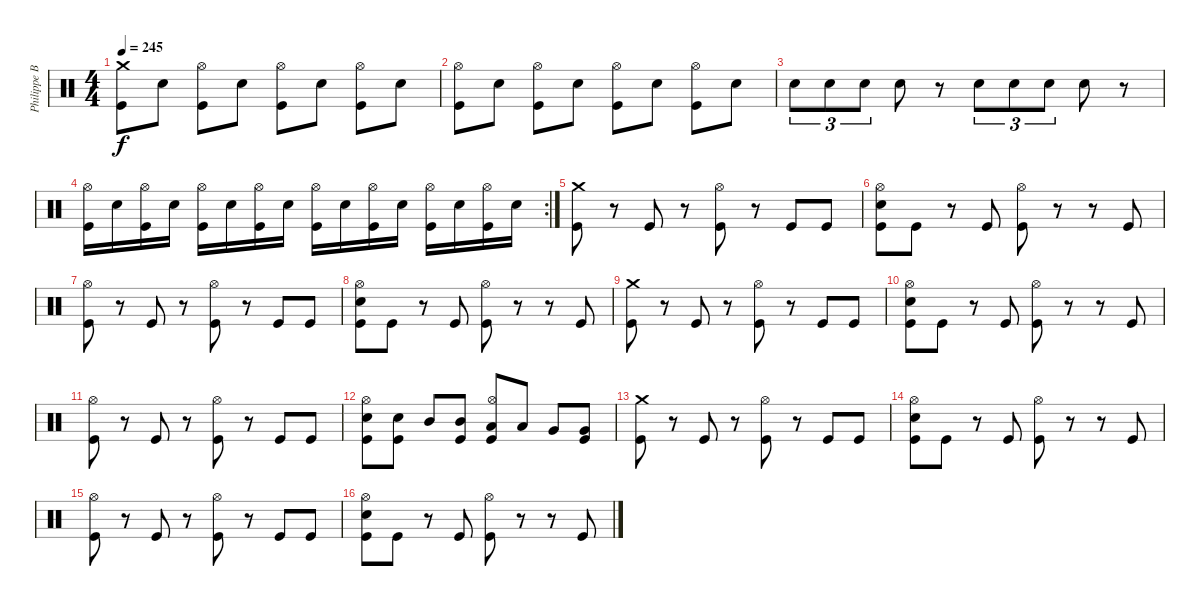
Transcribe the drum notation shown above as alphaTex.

\track ("Philippe Boucher" "Philippe B") {instrument percussion}
\staff {score}
\articulation defaults
\ts (4 4)
\tempo 245
\clef neutral
\ks c
("Crash medium (hit)" "Kick (hit)").8{dy f} "Electric Snare (hit)".8 ("Hi-Hat (open)" "Kick (hit)").8 "Electric Snare (hit)".8 ("Hi-Hat (open)" "Kick (hit)").8 "Electric Snare (hit)".8 ("Hi-Hat (open)" "Kick (hit)").8 "Electric Snare (hit)".8 |
("Hi-Hat (open)" "Kick (hit)").8 "Electric Snare (hit)".8 ("Hi-Hat (open)" "Kick (hit)").8 "Electric Snare (hit)".8 ("Hi-Hat (open)" "Kick (hit)").8 "Electric Snare (hit)".8 ("Hi-Hat (open)" "Kick (hit)").8 "Electric Snare (hit)".8 |
"Electric Snare (hit)".8{tu (3 2)} "Electric Snare (hit)".8{tu (3 2)} "Electric Snare (hit)".8{tu (3 2)} "Electric Snare (hit)".8 r.8 "Electric Snare (hit)".8{tu (3 2)} "Electric Snare (hit)".8{tu (3 2)} "Electric Snare (hit)".8{tu (3 2)} "Electric Snare (hit)".8 r.8 |
\rc 2
("Hi-Hat (open)" "Kick (hit)").16 "Electric Snare (hit)".16 ("Hi-Hat (open)" "Kick (hit)").16 "Electric Snare (hit)".16 ("Hi-Hat (open)" "Kick (hit)").16 "Electric Snare (hit)".16 ("Hi-Hat (open)" "Kick (hit)").16 "Electric Snare (hit)".16 ("Hi-Hat (open)" "Kick (hit)").16 "Electric Snare (hit)".16 ("Hi-Hat (open)" "Kick (hit)").16 "Electric Snare (hit)".16 ("Hi-Hat (open)" "Kick (hit)").16 "Electric Snare (hit)".16 ("Hi-Hat (open)" "Kick (hit)").16 "Electric Snare (hit)".16 |
("Crash medium (hit)" "Kick (hit)").8 r.8 "Kick (hit)".8 r.8 ("Hi-Hat (open)" "Kick (hit)").8 r.8 "Kick (hit)".8 "Kick (hit)".8 |
("Hi-Hat (open)" "Electric Snare (hit)" "Kick (hit)").8 "Kick (hit)".8 r.8 "Kick (hit)".8 ("Hi-Hat (open)" "Kick (hit)").8 r.8 r.8 "Kick (hit)".8 |
("Hi-Hat (open)" "Kick (hit)").8 r.8 "Kick (hit)".8 r.8 ("Hi-Hat (open)" "Kick (hit)").8 r.8 "Kick (hit)".8 "Kick (hit)".8 |
("Hi-Hat (open)" "Electric Snare (hit)" "Kick (hit)").8 "Kick (hit)".8 r.8 "Kick (hit)".8 ("Hi-Hat (open)" "Kick (hit)").8 r.8 r.8 "Kick (hit)".8 |
("Crash medium (hit)" "Kick (hit)").8 r.8 "Kick (hit)".8 r.8 ("Hi-Hat (open)" "Kick (hit)").8 r.8 "Kick (hit)".8 "Kick (hit)".8 |
("Hi-Hat (open)" "Electric Snare (hit)" "Kick (hit)").8 "Kick (hit)".8 r.8 "Kick (hit)".8 ("Hi-Hat (open)" "Kick (hit)").8 r.8 r.8 "Kick (hit)".8 |
("Hi-Hat (open)" "Kick (hit)").8 r.8 "Kick (hit)".8 r.8 ("Hi-Hat (open)" "Kick (hit)").8 r.8 "Kick (hit)".8 "Kick (hit)".8 |
("Hi-Hat (open)" "Electric Snare (hit)" "Kick (hit)").8 ("Electric Snare (hit)" "Kick (hit)").8 "Mid Tom (hit)".8 ("Mid Tom (hit)" "Kick (hit)").8 ("Hi-Hat (open)" "Low Tom (hit)" "Kick (hit)").8 "Low Tom (hit)".8 "Very Low Tom (hit)".8 ("Very Low Tom (hit)" "Kick (hit)").8 |
("Crash medium (hit)" "Kick (hit)").8 r.8 "Kick (hit)".8 r.8 ("Hi-Hat (open)" "Kick (hit)").8 r.8 "Kick (hit)".8 "Kick (hit)".8 |
("Hi-Hat (open)" "Electric Snare (hit)" "Kick (hit)").8 "Kick (hit)".8 r.8 "Kick (hit)".8 ("Hi-Hat (open)" "Kick (hit)").8 r.8 r.8 "Kick (hit)".8 |
("Hi-Hat (open)" "Kick (hit)").8 r.8 "Kick (hit)".8 r.8 ("Hi-Hat (open)" "Kick (hit)").8 r.8 "Kick (hit)".8 "Kick (hit)".8 |
("Hi-Hat (open)" "Electric Snare (hit)" "Kick (hit)").8 "Kick (hit)".8 r.8 "Kick (hit)".8 ("Hi-Hat (open)" "Kick (hit)").8 r.8 r.8 "Kick (hit)".8
